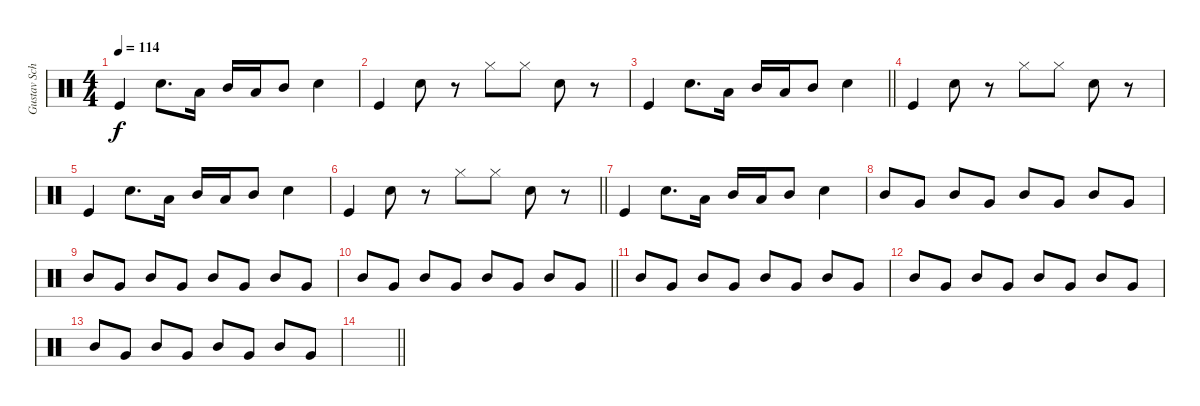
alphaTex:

\track ("Gustav Schäfer" "Gustav Sch") {instrument percussion}
\staff {score}
\articulation defaults
\ts (4 4)
\tempo 114
\clef neutral
\ks c "Kick (hit)".4{dy f} "Electric Snare (hit)".8{d} "Low Tom (hit)".16 "Mid Tom (hit)".16 "Low Tom (hit)".16 "Mid Tom (hit)".8 "Electric Snare (hit)".4
|
"Kick (hit)".4 "Electric Snare (hit)".8 r.8 "Hi-Hat (closed)".8 "Hi-Hat (closed)".8 "Electric Snare (hit)".8 r.8 |
\barLineRight lightlight "Kick (hit)".4 "Electric Snare (hit)".8{d} "Low Tom (hit)".16 "Mid Tom (hit)".16 "Low Tom (hit)".16 "Mid Tom (hit)".8 "Electric Snare (hit)".4
|
"Kick (hit)".4 "Electric Snare (hit)".8 r.8 "Hi-Hat (closed)".8 "Hi-Hat (closed)".8 "Electric Snare (hit)".8 r.8 |
"Kick (hit)".4 "Electric Snare (hit)".8{d} "Low Tom (hit)".16 "Mid Tom (hit)".16 "Low Tom (hit)".16 "Mid Tom (hit)".8 "Electric Snare (hit)".4 |
\barLineRight lightlight "Kick (hit)".4 "Electric Snare (hit)".8
r.8 "Hi-Hat (closed)".8 "Hi-Hat (closed)".8 "Electric Snare (hit)".8 r.8 |
"Kick (hit)".4 "Electric Snare (hit)".8{d} "Low Tom (hit)".16 "Mid Tom (hit)".16 "Low Tom (hit)".16 "Mid Tom (hit)".8 "Electric Snare (hit)".4 |
"Mid Tom (hit)".8 "Very Low Tom (hit)".8 "Mid Tom (hit)".8 "Very Low Tom (hit)".8 "Mid Tom (hit)".8 "Very Low Tom (hit)".8 "Mid Tom (hit)".8 "Very Low Tom (hit)".8 |
"Mid Tom (hit)".8 "Very Low Tom (hit)".8 "Mid Tom (hit)".8 "Very Low Tom (hit)".8 "Mid Tom (hit)".8 "Very Low Tom (hit)".8 "Mid Tom (hit)".8 "Very Low Tom (hit)".8 |
\barLineRight lightlight "Mid Tom (hit)".8 "Very Low Tom (hit)".8 "Mid Tom (hit)".8 "Very Low Tom (hit)".8 "Mid Tom (hit)".8 "Very Low Tom (hit)".8 "Mid Tom (hit)".8 "Very Low Tom (hit)".8
|
"Mid Tom (hit)".8 "Very Low Tom (hit)".8 "Mid Tom (hit)".8 "Very Low Tom (hit)".8 "Mid Tom (hit)".8 "Very Low Tom (hit)".8 "Mid Tom (hit)".8 "Very Low Tom (hit)".8 |
"Mid Tom (hit)".8 "Very Low Tom (hit)".8 "Mid Tom (hit)".8 "Very Low Tom (hit)".8 "Mid Tom (hit)".8 "Very Low Tom (hit)".8 "Mid Tom (hit)".8 "Very Low Tom (hit)".8 |
"Mid Tom (hit)".8 "Very Low Tom (hit)".8 "Mid Tom (hit)".8 "Very Low Tom (hit)".8 "Mid Tom (hit)".8 "Very Low Tom (hit)".8 "Mid Tom (hit)".8 "Very Low Tom (hit)".8 |
\barLineRight lightlight
